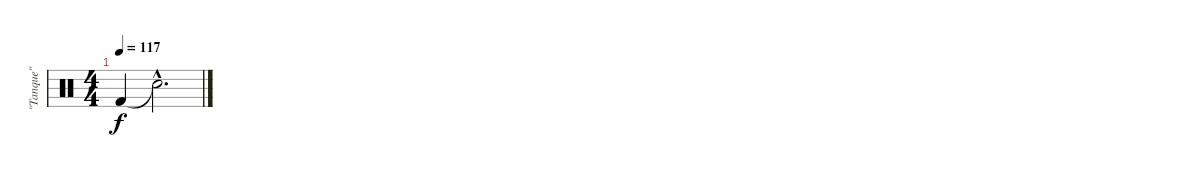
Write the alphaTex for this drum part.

\track ("\"Tanque\"" "\"Tanque\"") {instrument percussion}
\staff {score}
\articulation defaults
\ts (4 4)
\tempo 117
\clef neutral
\ks c "Kick (hit) 2".4{dy f} "Snare (hit)"{hac t}.2{d}
